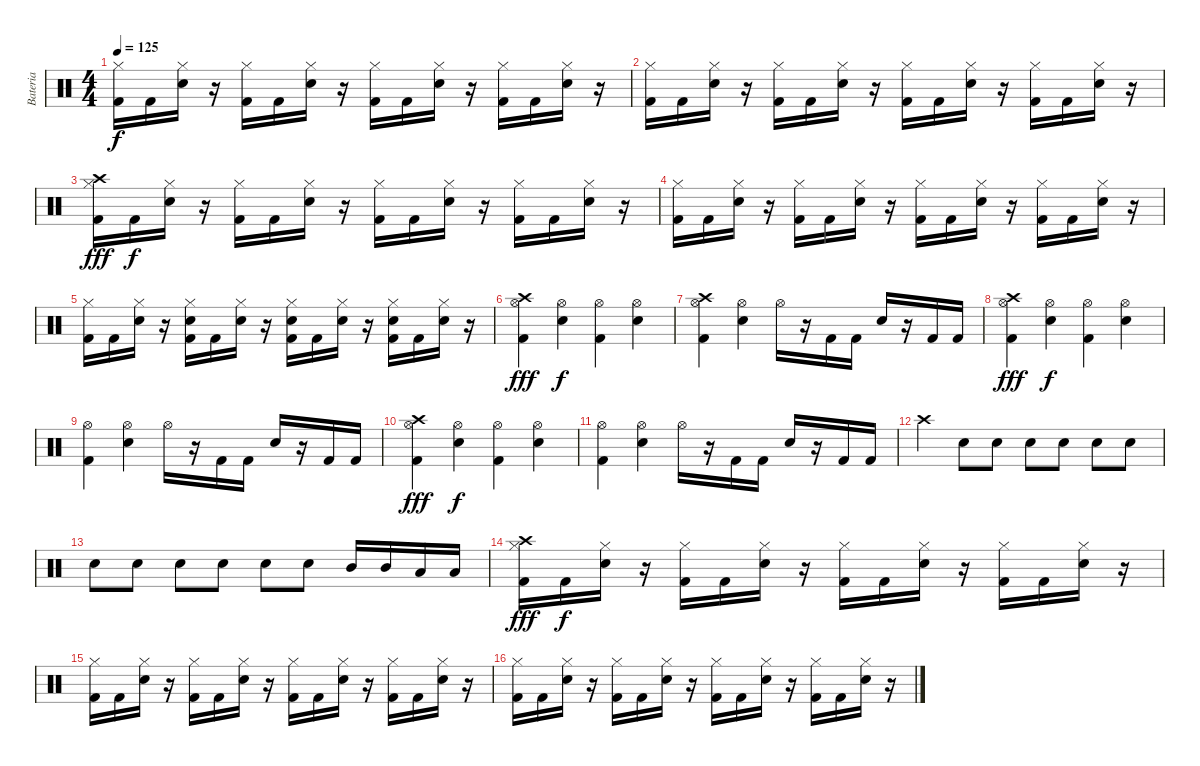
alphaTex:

\track ("Bateria" "Bateria") {instrument percussion}
\staff {score}
\articulation defaults
\ts (4 4)
\tempo 125
\clef neutral
\ks c
("Kick (hit) 2" "Hi-Hat (closed)").16{dy f} "Kick (hit) 2".16 ("Snare (hit) 2" "Hi-Hat (closed)").16 r.16 ("Kick (hit) 2" "Hi-Hat (closed)").16 "Kick (hit) 2".16 ("Snare (hit) 2" "Hi-Hat (closed)").16 r.16 ("Kick (hit) 2" "Hi-Hat (closed)").16 "Kick (hit) 2".16 ("Snare (hit) 2" "Hi-Hat (closed)").16 r.16 ("Kick (hit) 2" "Hi-Hat (closed)").16 "Kick (hit) 2".16 ("Snare (hit) 2" "Hi-Hat (closed)").16 r.16 |
("Kick (hit) 2" "Hi-Hat (closed)").16 "Kick (hit) 2".16 ("Snare (hit) 2" "Hi-Hat (closed)").16 r.16 ("Kick (hit) 2" "Hi-Hat (closed)").16 "Kick (hit) 2".16 ("Snare (hit) 2" "Hi-Hat (closed)").16 r.16 ("Kick (hit) 2" "Hi-Hat (closed)").16 "Kick (hit) 2".16 ("Snare (hit) 2" "Hi-Hat (closed)").16 r.16 ("Kick (hit) 2" "Hi-Hat (closed)").16 "Kick (hit) 2".16 ("Snare (hit) 2" "Hi-Hat (closed)").16 r.16 |
("Crash high (hit)" "Kick (hit) 2" "Hi-Hat (closed)").16{dy fff} "Kick (hit) 2".16{dy f} ("Snare (hit) 2" "Hi-Hat (closed)").16 r.16 ("Kick (hit) 2" "Hi-Hat (closed)").16 "Kick (hit) 2".16 ("Snare (hit) 2" "Hi-Hat (closed)").16 r.16 ("Kick (hit) 2" "Hi-Hat (closed)").16 "Kick (hit) 2".16 ("Snare (hit) 2" "Hi-Hat (closed)").16 r.16 ("Kick (hit) 2" "Hi-Hat (closed)").16 "Kick (hit) 2".16 ("Snare (hit) 2" "Hi-Hat (closed)").16 r.16 |
("Kick (hit) 2" "Hi-Hat (closed)").16 "Kick (hit) 2".16 ("Snare (hit) 2" "Hi-Hat (closed)").16 r.16 ("Kick (hit) 2" "Hi-Hat (closed)").16 "Kick (hit) 2".16 ("Snare (hit) 2" "Hi-Hat (closed)").16 r.16 ("Kick (hit) 2" "Hi-Hat (closed)").16 "Kick (hit) 2".16 ("Snare (hit) 2" "Hi-Hat (closed)").16 r.16 ("Kick (hit) 2" "Hi-Hat (closed)").16 "Kick (hit) 2".16 ("Snare (hit) 2" "Hi-Hat (closed)").16 r.16 |
("Kick (hit) 2" "Hi-Hat (closed)").16 "Kick (hit) 2".16 ("Snare (hit) 2" "Hi-Hat (closed)").16 r.16 ("Snare (hit) 2" "Kick (hit) 2" "Hi-Hat (closed)").16 "Kick (hit) 2".16 ("Snare (hit) 2" "Hi-Hat (closed)").16 r.16 ("Snare (hit) 2" "Kick (hit) 2" "Hi-Hat (closed)").16 "Kick (hit) 2".16 ("Snare (hit) 2" "Hi-Hat (closed)").16 r.16 ("Snare (hit) 2" "Kick (hit) 2" "Hi-Hat (closed)").16 "Kick (hit) 2".16 ("Snare (hit) 2" "Hi-Hat (closed)").16 r.16 |
("Hi-Hat (open)" "Kick (hit) 2" "Crash high (hit)").4{dy fff} ("Hi-Hat (open)" "Snare (hit) 2").4{dy f} ("Hi-Hat (open)" "Kick (hit) 2").4 ("Hi-Hat (open)" "Snare (hit) 2").4 |
("Hi-Hat (open)" "Kick (hit) 2" "Crash high (hit)").4 ("Hi-Hat (open)" "Snare (hit) 2").4 "Hi-Hat (open)".16 r.16 "Kick (hit) 2".16 "Kick (hit) 2".16 "Snare (hit) 2".16 r.16 "Kick (hit) 2".16 "Kick (hit) 2".16 |
("Hi-Hat (open)" "Kick (hit) 2" "Crash high (hit)").4{dy fff} ("Hi-Hat (open)" "Snare (hit) 2").4{dy f} ("Hi-Hat (open)" "Kick (hit) 2").4 ("Hi-Hat (open)" "Snare (hit) 2").4 |
("Hi-Hat (open)" "Kick (hit) 2").4 ("Hi-Hat (open)" "Snare (hit) 2").4 "Hi-Hat (open)".16 r.16 "Kick (hit) 2".16 "Kick (hit) 2".16 "Snare (hit) 2".16 r.16 "Kick (hit) 2".16 "Kick (hit) 2".16 |
("Hi-Hat (open)" "Kick (hit) 2" "Crash high (hit)").4{dy fff} ("Hi-Hat (open)" "Snare (hit) 2").4{dy f} ("Hi-Hat (open)" "Kick (hit) 2").4 ("Hi-Hat (open)" "Snare (hit) 2").4 |
("Hi-Hat (open)" "Kick (hit) 2").4 ("Hi-Hat (open)" "Snare (hit) 2").4 "Hi-Hat (open)".16 r.16 "Kick (hit) 2".16 "Kick (hit) 2".16 "Snare (hit) 2".16 r.16 "Kick (hit) 2".16 "Kick (hit) 2".16 |
"Crash high (hit)".4 "Snare (hit) 2".8 "Snare (hit) 2".8 "Snare (hit) 2".8 "Snare (hit) 2".8 "Snare (hit) 2".8 "Snare (hit) 2".8 |
"Snare (hit) 2".8 "Snare (hit) 2".8 "Snare (hit) 2".8 "Snare (hit) 2".8 "Snare (hit) 2".8 "Snare (hit) 2".8 "Mid Tom (hit)".16 "Mid Tom (hit)".16 "Low Tom (hit)".16 "Low Tom (hit)".16 |
("Crash high (hit)" "Kick (hit) 2" "Hi-Hat (closed)").16{dy fff} "Kick (hit) 2".16{dy f} ("Snare (hit) 2" "Hi-Hat (closed)").16 r.16 ("Kick (hit) 2" "Hi-Hat (closed)").16 "Kick (hit) 2".16 ("Snare (hit) 2" "Hi-Hat (closed)").16 r.16 ("Kick (hit) 2" "Hi-Hat (closed)").16 "Kick (hit) 2".16 ("Snare (hit) 2" "Hi-Hat (closed)").16 r.16 ("Kick (hit) 2" "Hi-Hat (closed)").16 "Kick (hit) 2".16 ("Snare (hit) 2" "Hi-Hat (closed)").16 r.16 |
("Kick (hit) 2" "Hi-Hat (closed)").16 "Kick (hit) 2".16 ("Snare (hit) 2" "Hi-Hat (closed)").16 r.16 ("Kick (hit) 2" "Hi-Hat (closed)").16 "Kick (hit) 2".16 ("Snare (hit) 2" "Hi-Hat (closed)").16 r.16 ("Kick (hit) 2" "Hi-Hat (closed)").16 "Kick (hit) 2".16 ("Snare (hit) 2" "Hi-Hat (closed)").16 r.16 ("Kick (hit) 2" "Hi-Hat (closed)").16 "Kick (hit) 2".16 ("Snare (hit) 2" "Hi-Hat (closed)").16 r.16 |
("Kick (hit) 2" "Hi-Hat (closed)").16 "Kick (hit) 2".16 ("Snare (hit) 2" "Hi-Hat (closed)").16 r.16 ("Kick (hit) 2" "Hi-Hat (closed)").16 "Kick (hit) 2".16 ("Snare (hit) 2" "Hi-Hat (closed)").16 r.16 ("Kick (hit) 2" "Hi-Hat (closed)").16 "Kick (hit) 2".16 ("Snare (hit) 2" "Hi-Hat (closed)").16 r.16 ("Kick (hit) 2" "Hi-Hat (closed)").16 "Kick (hit) 2".16 ("Snare (hit) 2" "Hi-Hat (closed)").16 r.16
